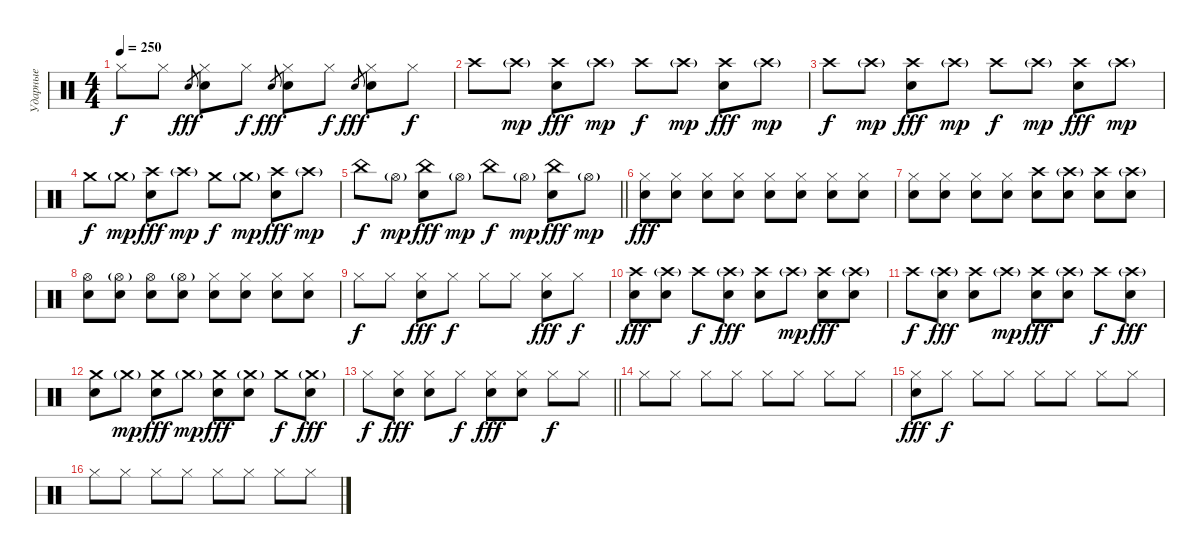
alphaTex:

\track ("Ударные" "Ударные") {instrument percussion}
\staff {score}
\articulation defaults
\ts (4 4)
\tempo 250
\clef neutral
\ks c "Hi-Hat (closed)".8{dy f} "Hi-Hat (closed)".8 "Snare (hit) 2".8{gr dy fff}
("Hi-Hat (closed)" "Snare (hit) 2").8 "Hi-Hat (closed)".8{dy f} "Snare (hit) 2".8{gr dy fff} ("Hi-Hat (closed)" "Snare (hit) 2").8 "Hi-Hat (closed)".8{dy f} "Snare (hit) 2".8{gr dy fff} ("Hi-Hat (closed)" "Snare (hit) 2").8 "Hi-Hat (closed)".8{dy f} |
"Crash high (hit)".8 "Crash high (hit)"{g}.8{dy mp} ("Crash high (hit)" "Snare (hit) 2").8{dy fff} "Crash high (hit)"{g}.8{dy mp} "Crash high (hit)".8{dy f} "Crash high (hit)"{g}.8{dy mp} ("Crash high (hit)" "Snare (hit) 2").8{dy fff} "Crash high (hit)"{g}.8{dy mp} |
"Crash high (hit)".8{dy f} "Crash high (hit)"{g}.8{dy mp} ("Crash high (hit)" "Snare (hit) 2").8{dy fff} "Crash high (hit)"{g}.8{dy mp} "Crash high (hit)".8{dy f} "Crash high (hit)"{g}.8{dy mp} ("Crash high (hit)" "Snare (hit) 2").8{dy fff} "Crash high (hit)"{g}.8{dy mp} |
"Crash medium (hit)".8{dy f} "Crash medium (hit)"{g}.8{dy mp} ("Crash high (hit)" "Snare (hit) 2").8{dy fff} "Crash high (hit)"{g}.8{dy mp} "Crash medium (hit)".8{dy f} "Crash medium (hit)"{g}.8{dy mp} ("Crash high (hit)" "Snare (hit) 2").8{dy fff} "Crash high (hit)"{g}.8{dy mp} |
\barLineRight lightlight "China (hit)".8{dy f} "Hi-Hat (open)"{g}.8{dy mp}
("China (hit)" "Snare (hit) 2").8{dy fff} "Hi-Hat (open)"{g}.8{dy mp} "China (hit)".8{dy f} "Hi-Hat (open)"{g}.8{dy mp} ("China (hit)" "Snare (hit) 2").8{dy fff} "Hi-Hat (open)"{g}.8{dy mp} |
("Hi-Hat (closed)" "Snare (hit) 2").8{dy fff} ("Hi-Hat (closed)" "Snare (hit) 2").8 ("Hi-Hat (closed)" "Snare (hit) 2").8 ("Hi-Hat (closed)" "Snare (hit) 2").8 ("Hi-Hat (closed)" "Snare (hit) 2").8 ("Hi-Hat (closed)" "Snare (hit) 2").8 ("Hi-Hat (closed)" "Snare (hit) 2").8 ("Hi-Hat (closed)" "Snare (hit) 2").8 |
("Hi-Hat (closed)" "Snare (hit) 2").8 ("Hi-Hat (closed)" "Snare (hit) 2").8 ("Hi-Hat (closed)" "Snare (hit) 2").8 ("Hi-Hat (closed)" "Snare (hit) 2").8 ("Crash high (hit)" "Snare (hit) 2").8 ("Crash high (hit)"{g} "Snare (hit) 2").8 ("Crash high (hit)" "Snare (hit) 2").8 ("Crash high (hit)"{g} "Snare (hit) 2").8 |
("Hi-Hat (open)" "Snare (hit) 2").8 ("Hi-Hat (open)"{g} "Snare (hit) 2").8 ("Hi-Hat (open)" "Snare (hit) 2").8 ("Hi-Hat (open)"{g} "Snare (hit) 2").8 ("Hi-Hat (closed)" "Snare (hit) 2").8 ("Hi-Hat (closed)" "Snare (hit) 2").8 ("Hi-Hat (closed)" "Snare (hit) 2").8 ("Hi-Hat (closed)" "Snare (hit) 2").8 |
"Hi-Hat (closed)".8{dy f} "Hi-Hat (closed)".8 ("Hi-Hat (closed)" "Snare (hit) 2").8{dy fff} "Hi-Hat (closed)".8{dy f} "Hi-Hat (closed)".8 "Hi-Hat (closed)".8 ("Hi-Hat (closed)" "Snare (hit) 2").8{dy fff} "Hi-Hat (closed)".8{dy f} |
("Crash high (hit)" "Snare (hit) 2").8{dy fff} ("Crash high (hit)"{g} "Snare (hit) 2").8 "Crash high (hit)".8{dy f} ("Crash high (hit)"{g} "Snare (hit) 2").8{dy fff} ("Crash high (hit)" "Snare (hit) 2").8 "Crash high (hit)"{g}.8{dy mp} ("Crash high (hit)" "Snare (hit) 2").8{dy fff} ("Crash high (hit)"{g} "Snare (hit) 2").8 |
"Crash high (hit)".8{dy f} ("Crash high (hit)"{g} "Snare (hit) 2").8{dy fff} ("Crash high (hit)" "Snare (hit) 2").8 "Crash high (hit)"{g}.8{dy mp} ("Crash high (hit)" "Snare (hit) 2").8{dy fff} ("Crash high (hit)"{g} "Snare (hit) 2").8 "Crash high (hit)".8{dy f} ("Crash high (hit)"{g} "Snare (hit) 2").8{dy fff} |
("Crash medium (hit)" "Snare (hit) 2").8 "Crash medium (hit)"{g}.8{dy mp} ("Crash medium (hit)" "Snare (hit) 2").8{dy fff} "Crash medium (hit)"{g}.8{dy mp} ("Crash medium (hit)" "Snare (hit) 2").8{dy fff} ("Crash medium (hit)"{g} "Snare (hit) 2").8 "Crash medium (hit)".8{dy f} ("Crash medium (hit)"{g} "Snare (hit) 2").8{dy fff} |
\barLineRight lightlight "Hi-Hat (closed)".8{dy f}
("Hi-Hat (closed)" "Snare (hit) 2").8{dy fff} ("Hi-Hat (closed)" "Snare (hit) 2").8 "Hi-Hat (closed)".8{dy f} ("Hi-Hat (closed)" "Snare (hit) 2").8{dy fff} ("Hi-Hat (closed)" "Snare (hit) 2").8 "Hi-Hat (closed)".8{dy f} "Hi-Hat (closed)".8 |
"Hi-Hat (closed)".8 "Hi-Hat (closed)".8 "Hi-Hat (closed)".8 "Hi-Hat (closed)".8 "Hi-Hat (closed)".8 "Hi-Hat (closed)".8 "Hi-Hat (closed)".8 "Hi-Hat (closed)".8 |
("Hi-Hat (closed)" "Snare (hit) 2").8{dy fff} "Hi-Hat (closed)".8{dy f} "Hi-Hat (closed)".8 "Hi-Hat (closed)".8 "Hi-Hat (closed)".8 "Hi-Hat (closed)".8 "Hi-Hat (closed)".8 "Hi-Hat (closed)".8 |
"Hi-Hat (closed)".8 "Hi-Hat (closed)".8 "Hi-Hat (closed)".8 "Hi-Hat (closed)".8 "Hi-Hat (closed)".8 "Hi-Hat (closed)".8 "Hi-Hat (closed)".8 "Hi-Hat (closed)".8
